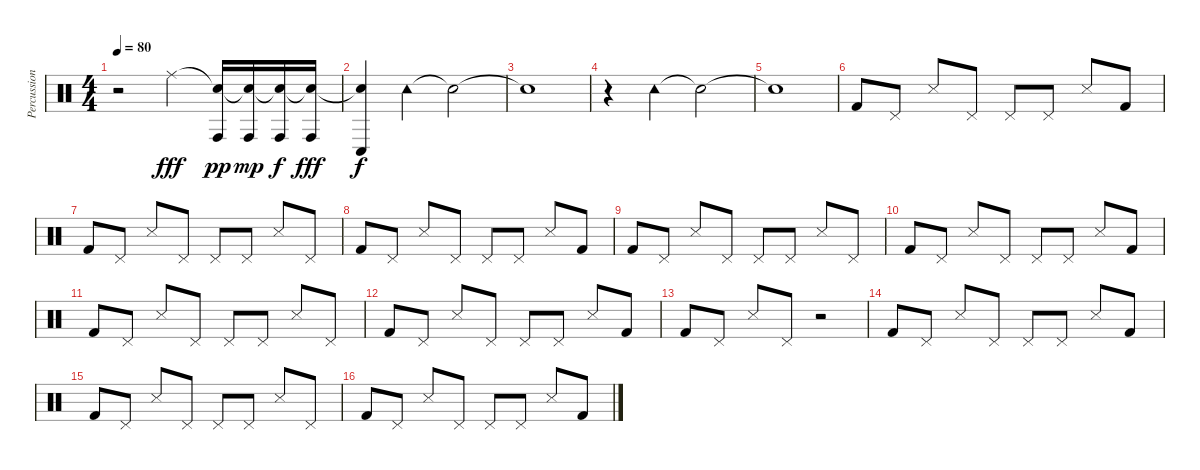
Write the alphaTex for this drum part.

\track ("Percussions" "Percussion") {instrument percussion}
\staff {score}
\articulation defaults
\ts (4 4)
\tempo 80
\clef neutral
\ks c
r.2{dy fff} "Ride (middle)".4 ("Snare (hit)"{t} "Conga high (hit)").16{dy pp} ("Snare (hit)"{t} "Conga high (hit)").16{dy mp} ("Snare (hit)"{t} "Conga high (hit)").16{dy f} ("Snare (hit)"{t} "Conga high (hit)").16{dy fff} |
("Snare (hit)"{t} "Conga low (hit)").4{dy f} "Tambourine (hit)".4 "Snare (hit)"{t}.2 |
"Snare (hit)"{t}.1 |
r.4 "Tambourine (hit)".4 "Snare (hit)"{t}.2 |
"Snare (hit)"{t}.1 |
"Kick (hit) 2".8 "Pedal Hi-Hat (hit)".8 "Snare (side stick) 3".8 "Pedal Hi-Hat (hit)".8 "Pedal Hi-Hat (hit)".8 "Pedal Hi-Hat (hit)".8 "Snare (side stick) 3".8 "Kick (hit) 2".8 |
"Kick (hit) 2".8 "Pedal Hi-Hat (hit)".8 "Snare (side stick) 3".8 "Pedal Hi-Hat (hit)".8 "Pedal Hi-Hat (hit)".8 "Pedal Hi-Hat (hit)".8 "Snare (side stick) 3".8 "Pedal Hi-Hat (hit)".8 |
"Kick (hit) 2".8 "Pedal Hi-Hat (hit)".8 "Snare (side stick) 3".8 "Pedal Hi-Hat (hit)".8 "Pedal Hi-Hat (hit)".8 "Pedal Hi-Hat (hit)".8 "Snare (side stick) 3".8 "Kick (hit) 2".8 |
"Kick (hit) 2".8 "Pedal Hi-Hat (hit)".8 "Snare (side stick) 3".8 "Pedal Hi-Hat (hit)".8 "Pedal Hi-Hat (hit)".8 "Pedal Hi-Hat (hit)".8 "Snare (side stick) 3".8 "Pedal Hi-Hat (hit)".8 |
"Kick (hit) 2".8 "Pedal Hi-Hat (hit)".8 "Snare (side stick) 3".8 "Pedal Hi-Hat (hit)".8 "Pedal Hi-Hat (hit)".8 "Pedal Hi-Hat (hit)".8 "Snare (side stick) 3".8 "Kick (hit) 2".8 |
"Kick (hit) 2".8 "Pedal Hi-Hat (hit)".8 "Snare (side stick) 3".8 "Pedal Hi-Hat (hit)".8 "Pedal Hi-Hat (hit)".8 "Pedal Hi-Hat (hit)".8 "Snare (side stick) 3".8 "Pedal Hi-Hat (hit)".8 |
"Kick (hit) 2".8 "Pedal Hi-Hat (hit)".8 "Snare (side stick) 3".8 "Pedal Hi-Hat (hit)".8 "Pedal Hi-Hat (hit)".8 "Pedal Hi-Hat (hit)".8 "Snare (side stick) 3".8 "Kick (hit) 2".8 |
"Kick (hit) 2".8 "Pedal Hi-Hat (hit)".8 "Snare (side stick) 3".8 "Pedal Hi-Hat (hit)".8 r.2 |
"Kick (hit) 2".8 "Pedal Hi-Hat (hit)".8 "Snare (side stick) 3".8 "Pedal Hi-Hat (hit)".8 "Pedal Hi-Hat (hit)".8 "Pedal Hi-Hat (hit)".8 "Snare (side stick) 3".8 "Kick (hit) 2".8 |
"Kick (hit) 2".8 "Pedal Hi-Hat (hit)".8 "Snare (side stick) 3".8 "Pedal Hi-Hat (hit)".8 "Pedal Hi-Hat (hit)".8 "Pedal Hi-Hat (hit)".8 "Snare (side stick) 3".8 "Pedal Hi-Hat (hit)".8 |
"Kick (hit) 2".8 "Pedal Hi-Hat (hit)".8 "Snare (side stick) 3".8 "Pedal Hi-Hat (hit)".8 "Pedal Hi-Hat (hit)".8 "Pedal Hi-Hat (hit)".8 "Snare (side stick) 3".8 "Kick (hit) 2".8
